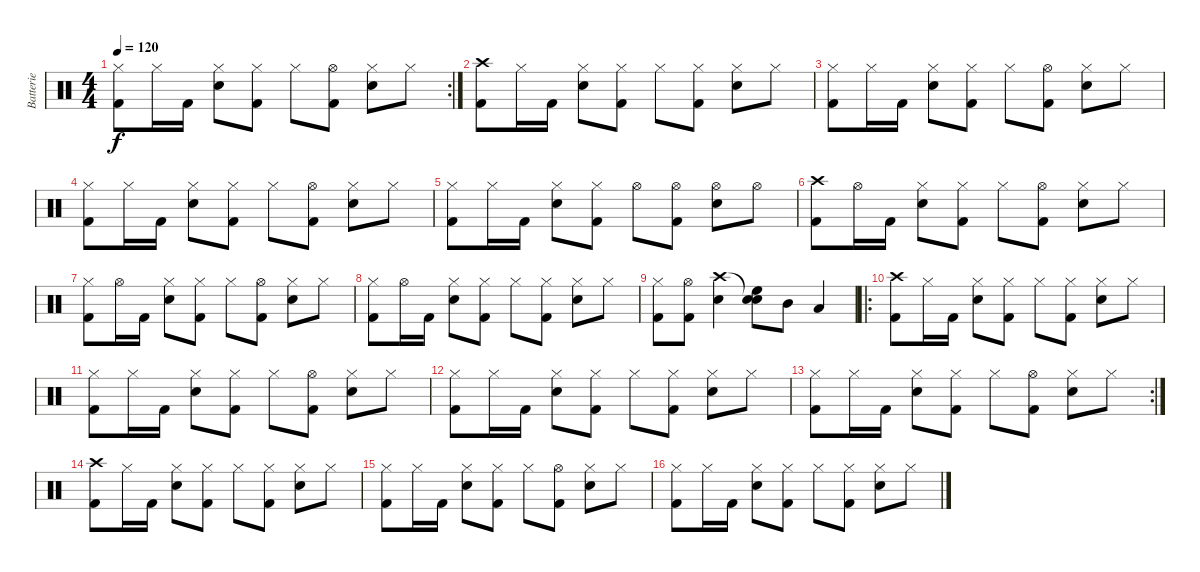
\track ("Batterie" "Batterie") {instrument percussion}
\staff {score}
\articulation defaults
\rc 2
\ts (4 4)
\tempo 120
\clef neutral
\ks c
("Hi-Hat (closed)" "Kick (hit) 2").8{dy f} "Hi-Hat (closed)".16 "Kick (hit) 2".16 ("Hi-Hat (closed)" "Snare (hit) 2").8 ("Hi-Hat (closed)" "Kick (hit) 2").8 "Hi-Hat (closed)".8 ("Hi-Hat (open)" "Kick (hit) 2").8 ("Hi-Hat (closed)" "Snare (hit) 2").8 "Hi-Hat (closed)".8 |
("Crash high (hit)" "Kick (hit) 2").8 "Hi-Hat (closed)".16 "Kick (hit) 2".16 ("Hi-Hat (closed)" "Snare (hit) 2").8 ("Hi-Hat (closed)" "Kick (hit) 2").8 "Hi-Hat (closed)".8 ("Hi-Hat (closed)" "Kick (hit) 2").8 ("Hi-Hat (closed)" "Snare (hit) 2").8 "Hi-Hat (closed)".8 |
("Hi-Hat (closed)" "Kick (hit) 2").8 "Hi-Hat (closed)".16 "Kick (hit) 2".16 ("Hi-Hat (closed)" "Snare (hit) 2").8 ("Hi-Hat (closed)" "Kick (hit) 2").8 "Hi-Hat (closed)".8 ("Hi-Hat (open)" "Kick (hit) 2").8 ("Hi-Hat (closed)" "Snare (hit) 2").8 "Hi-Hat (closed)".8 |
("Hi-Hat (closed)" "Kick (hit) 2").8 "Hi-Hat (closed)".16 "Kick (hit) 2".16 ("Hi-Hat (closed)" "Snare (hit) 2").8 ("Hi-Hat (closed)" "Kick (hit) 2").8 "Hi-Hat (closed)".8 ("Hi-Hat (open)" "Kick (hit) 2").8 ("Hi-Hat (closed)" "Snare (hit) 2").8 "Hi-Hat (closed)".8 |
("Hi-Hat (closed)" "Kick (hit) 2").8 "Hi-Hat (closed)".16 "Kick (hit) 2".16 ("Hi-Hat (closed)" "Snare (hit) 2").8 ("Hi-Hat (closed)" "Kick (hit) 2").8 "Hi-Hat (open)".8 ("Hi-Hat (open)" "Kick (hit) 2").8 ("Hi-Hat (open)" "Snare (hit) 2").8 "Hi-Hat (open)".8 |
("Crash high (hit)" "Kick (hit) 2").8 "Hi-Hat (open)".16 "Kick (hit) 2".16 ("Hi-Hat (closed)" "Snare (hit) 2").8 ("Hi-Hat (closed)" "Kick (hit) 2").8 "Hi-Hat (closed)".8 ("Hi-Hat (open)" "Kick (hit) 2").8 ("Hi-Hat (closed)" "Snare (hit) 2").8 "Hi-Hat (closed)".8 |
("Hi-Hat (closed)" "Kick (hit) 2").8 "Hi-Hat (open)".16 "Kick (hit) 2".16 ("Hi-Hat (closed)" "Snare (hit) 2").8 ("Hi-Hat (closed)" "Kick (hit) 2").8 "Hi-Hat (closed)".8 ("Hi-Hat (open)" "Kick (hit) 2").8 ("Hi-Hat (closed)" "Snare (hit) 2").8 "Hi-Hat (closed)".8 |
("Hi-Hat (closed)" "Kick (hit) 2").8 "Hi-Hat (open)".16 "Kick (hit) 2".16 ("Hi-Hat (closed)" "Snare (hit) 2").8 ("Hi-Hat (closed)" "Kick (hit) 2").8 "Hi-Hat (closed)".8 ("Hi-Hat (closed)" "Kick (hit) 2").8 ("Hi-Hat (closed)" "Snare (hit) 2").8 "Hi-Hat (closed)".8 |
("Hi-Hat (closed)" "Kick (hit) 2").8 ("Hi-Hat (open)" "Kick (hit) 2").8 ("Crash high (hit)" "Snare (hit) 2").4 ("Snare (hit)"{t} "High Floor Tom (hit)" "Snare (hit)").8 "Mid Tom (hit)".8 "Low Floor Tom (hit)".4 |
\ro
("Crash high (hit)" "Kick (hit) 2").8 "Hi-Hat (closed)".16 "Kick (hit) 2".16 ("Hi-Hat (closed)" "Snare (hit) 2").8 ("Hi-Hat (closed)" "Kick (hit) 2").8 "Hi-Hat (closed)".8 ("Hi-Hat (closed)" "Kick (hit) 2").8 ("Hi-Hat (closed)" "Snare (hit) 2").8 "Hi-Hat (closed)".8 |
("Hi-Hat (closed)" "Kick (hit) 2").8 "Hi-Hat (closed)".16 "Kick (hit) 2".16 ("Hi-Hat (closed)" "Snare (hit) 2").8 ("Hi-Hat (closed)" "Kick (hit) 2").8 "Hi-Hat (closed)".8 ("Hi-Hat (open)" "Kick (hit) 2").8 ("Hi-Hat (closed)" "Snare (hit) 2").8 "Hi-Hat (closed)".8 |
("Hi-Hat (closed)" "Kick (hit) 2").8 "Hi-Hat (closed)".16 "Kick (hit) 2".16 ("Hi-Hat (closed)" "Snare (hit) 2").8 ("Hi-Hat (closed)" "Kick (hit) 2").8 "Hi-Hat (closed)".8 ("Hi-Hat (closed)" "Kick (hit) 2").8 ("Hi-Hat (closed)" "Snare (hit) 2").8 "Hi-Hat (closed)".8 |
\rc 2
("Hi-Hat (closed)" "Kick (hit) 2").8 "Hi-Hat (closed)".16 "Kick (hit) 2".16 ("Hi-Hat (closed)" "Snare (hit) 2").8 ("Hi-Hat (closed)" "Kick (hit) 2").8 "Hi-Hat (closed)".8 ("Hi-Hat (open)" "Kick (hit) 2").8 ("Hi-Hat (closed)" "Snare (hit) 2").8 "Hi-Hat (closed)".8 |
("Crash high (hit)" "Kick (hit) 2").8 "Hi-Hat (closed)".16 "Kick (hit) 2".16 ("Hi-Hat (closed)" "Snare (hit) 2").8 ("Hi-Hat (closed)" "Kick (hit) 2").8 "Hi-Hat (closed)".8 ("Hi-Hat (closed)" "Kick (hit) 2").8 ("Hi-Hat (closed)" "Snare (hit) 2").8 "Hi-Hat (closed)".8 |
("Hi-Hat (closed)" "Kick (hit) 2").8 "Hi-Hat (closed)".16 "Kick (hit) 2".16 ("Hi-Hat (closed)" "Snare (hit) 2").8 ("Hi-Hat (closed)" "Kick (hit) 2").8 "Hi-Hat (closed)".8 ("Hi-Hat (open)" "Kick (hit) 2").8 ("Hi-Hat (closed)" "Snare (hit) 2").8 "Hi-Hat (closed)".8 |
("Hi-Hat (closed)" "Kick (hit) 2").8 "Hi-Hat (closed)".16 "Kick (hit) 2".16 ("Hi-Hat (closed)" "Snare (hit) 2").8 ("Hi-Hat (closed)" "Kick (hit) 2").8 "Hi-Hat (closed)".8 ("Hi-Hat (closed)" "Kick (hit) 2").8 ("Hi-Hat (closed)" "Snare (hit) 2").8 "Hi-Hat (closed)".8
